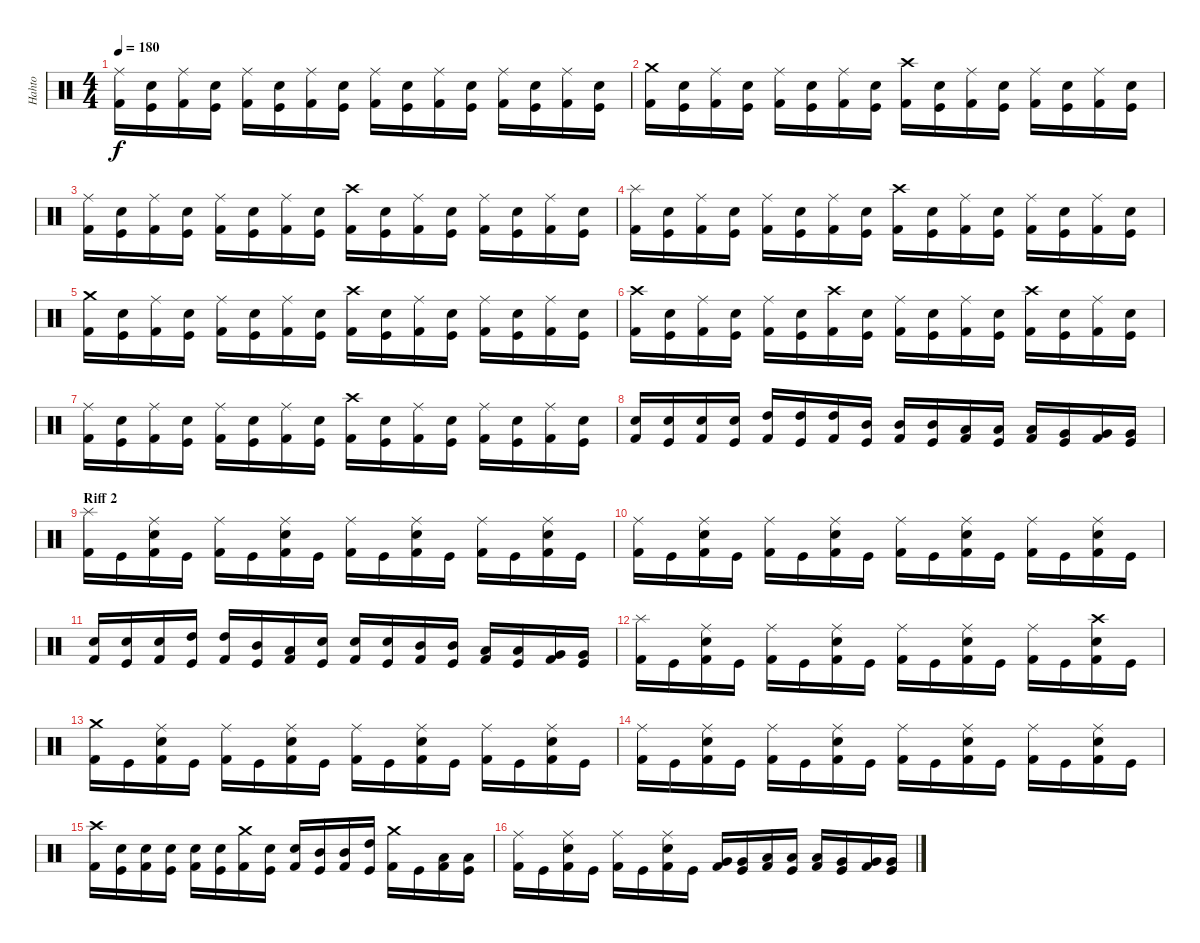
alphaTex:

\track ("Hahto" "Hahto") {instrument percussion}
\staff {score}
\articulation defaults
\ts (4 4)
\tempo 180
\clef neutral
\ks c
("Ride (middle)" "Kick (hit) 2").16{dy f} ("Snare (hit) 2" "Kick (hit)").16 ("Ride (middle)" "Kick (hit) 2").16 ("Snare (hit) 2" "Kick (hit)").16 ("Ride (middle)" "Kick (hit) 2").16 ("Snare (hit) 2" "Kick (hit)").16 ("Ride (middle)" "Kick (hit) 2").16 ("Snare (hit) 2" "Kick (hit)").16 ("Ride (middle)" "Kick (hit) 2").16 ("Snare (hit) 2" "Kick (hit)").16 ("Ride (middle)" "Kick (hit) 2").16 ("Snare (hit) 2" "Kick (hit)").16 ("Ride (middle)" "Kick (hit) 2").16 ("Snare (hit) 2" "Kick (hit)").16 ("Ride (middle)" "Kick (hit) 2").16 ("Snare (hit) 2" "Kick (hit)").16 |
("Crash medium (hit)" "Kick (hit) 2").16 ("Snare (hit) 2" "Kick (hit)").16 ("Ride (middle)" "Kick (hit) 2").16 ("Snare (hit) 2" "Kick (hit)").16 ("Ride (middle)" "Kick (hit) 2").16 ("Snare (hit) 2" "Kick (hit)").16 ("Ride (middle)" "Kick (hit) 2").16 ("Snare (hit) 2" "Kick (hit)").16 ("Crash high (hit)" "Kick (hit) 2").16 ("Snare (hit) 2" "Kick (hit)").16 ("Ride (middle)" "Kick (hit) 2").16 ("Snare (hit) 2" "Kick (hit)").16 ("Ride (middle)" "Kick (hit) 2").16 ("Snare (hit) 2" "Kick (hit)").16 ("Ride (middle)" "Kick (hit) 2").16 ("Snare (hit) 2" "Kick (hit)").16 |
("Ride (middle)" "Kick (hit) 2").16 ("Snare (hit) 2" "Kick (hit)").16 ("Ride (middle)" "Kick (hit) 2").16 ("Snare (hit) 2" "Kick (hit)").16 ("Ride (middle)" "Kick (hit) 2").16 ("Snare (hit) 2" "Kick (hit)").16 ("Ride (middle)" "Kick (hit) 2").16 ("Snare (hit) 2" "Kick (hit)").16 ("Crash high (hit)" "Kick (hit) 2").16 ("Snare (hit) 2" "Kick (hit)").16 ("Ride (middle)" "Kick (hit) 2").16 ("Snare (hit) 2" "Kick (hit)").16 ("Ride (middle)" "Kick (hit) 2").16 ("Snare (hit) 2" "Kick (hit)").16 ("Ride (middle)" "Kick (hit) 2").16 ("Snare (hit) 2" "Kick (hit)").16 |
("Splash (hit)" "Kick (hit) 2").16 ("Snare (hit) 2" "Kick (hit)").16 ("Ride (middle)" "Kick (hit) 2").16 ("Snare (hit) 2" "Kick (hit)").16 ("Ride (middle)" "Kick (hit) 2").16 ("Snare (hit) 2" "Kick (hit)").16 ("Ride (middle)" "Kick (hit) 2").16 ("Snare (hit) 2" "Kick (hit)").16 ("Crash high (hit)" "Kick (hit) 2").16 ("Snare (hit) 2" "Kick (hit)").16 ("Ride (middle)" "Kick (hit) 2").16 ("Snare (hit) 2" "Kick (hit)").16 ("Ride (middle)" "Kick (hit) 2").16 ("Snare (hit) 2" "Kick (hit)").16 ("Ride (middle)" "Kick (hit) 2").16 ("Snare (hit) 2" "Kick (hit)").16 |
("Crash medium (hit)" "Kick (hit) 2").16 ("Snare (hit) 2" "Kick (hit)").16 ("Ride (middle)" "Kick (hit) 2").16 ("Snare (hit) 2" "Kick (hit)").16 ("Ride (middle)" "Kick (hit) 2").16 ("Snare (hit) 2" "Kick (hit)").16 ("Ride (middle)" "Kick (hit) 2").16 ("Snare (hit) 2" "Kick (hit)").16 ("Crash high (hit)" "Kick (hit) 2").16 ("Snare (hit) 2" "Kick (hit)").16 ("Ride (middle)" "Kick (hit) 2").16 ("Snare (hit) 2" "Kick (hit)").16 ("Ride (middle)" "Kick (hit) 2").16 ("Snare (hit) 2" "Kick (hit)").16 ("Ride (middle)" "Kick (hit) 2").16 ("Snare (hit) 2" "Kick (hit)").16 |
("Crash high (hit)" "Kick (hit) 2").16 ("Snare (hit) 2" "Kick (hit)").16 ("Ride (middle)" "Kick (hit) 2").16 ("Snare (hit) 2" "Kick (hit)").16 ("Ride (middle)" "Kick (hit) 2").16 ("Snare (hit) 2" "Kick (hit)").16 ("Crash high (hit)" "Kick (hit) 2").16 ("Snare (hit) 2" "Kick (hit)").16 ("Ride (middle)" "Kick (hit) 2").16 ("Snare (hit) 2" "Kick (hit)").16 ("Ride (middle)" "Kick (hit) 2").16 ("Snare (hit) 2" "Kick (hit)").16 ("Crash high (hit)" "Kick (hit) 2").16 ("Snare (hit) 2" "Kick (hit)").16 ("Ride (middle)" "Kick (hit) 2").16 ("Snare (hit) 2" "Kick (hit)").16 |
("Ride (middle)" "Kick (hit) 2").16 ("Snare (hit) 2" "Kick (hit)").16 ("Ride (middle)" "Kick (hit) 2").16 ("Snare (hit) 2" "Kick (hit)").16 ("Ride (middle)" "Kick (hit) 2").16 ("Snare (hit) 2" "Kick (hit)").16 ("Ride (middle)" "Kick (hit) 2").16 ("Snare (hit) 2" "Kick (hit)").16 ("Crash high (hit)" "Kick (hit) 2").16 ("Snare (hit) 2" "Kick (hit)").16 ("Ride (middle)" "Kick (hit) 2").16 ("Snare (hit) 2" "Kick (hit)").16 ("Ride (middle)" "Kick (hit) 2").16 ("Snare (hit) 2" "Kick (hit)").16 ("Ride (middle)" "Kick (hit) 2").16 ("Snare (hit) 2" "Kick (hit)").16 |
("Snare (hit) 2" "Kick (hit) 2").16 ("Snare (hit) 2" "Kick (hit)").16 ("Snare (hit) 2" "Kick (hit) 2").16 ("Snare (hit) 2" "Kick (hit)").16 ("High Tom (hit)" "Kick (hit) 2").16 ("High Tom (hit)" "Kick (hit)").16 ("High Tom (hit)" "Kick (hit) 2").16 ("Mid Tom (hit)" "Kick (hit)").16 ("Mid Tom (hit)" "Kick (hit) 2").16 ("Mid Tom (hit)" "Kick (hit)").16 ("Low Tom (hit)" "Kick (hit) 2").16 ("Low Tom (hit)" "Kick (hit)").16 ("Low Tom (hit)" "Kick (hit) 2").16 ("Very Low Tom (hit)" "Kick (hit)").16 ("Very Low Tom (hit)" "Kick (hit) 2").16 ("Very Low Tom (hit)" "Kick (hit)").16 |
\section ("" "Riff 2")
("Splash (hit)" "Kick (hit) 2").16 "Kick (hit)".16 ("Ride (middle)" "Snare (hit) 2" "Kick (hit) 2").16 "Kick (hit)".16 ("Ride (middle)" "Kick (hit) 2").16 "Kick (hit)".16 ("Ride (middle)" "Snare (hit) 2" "Kick (hit) 2").16 "Kick (hit)".16 ("Ride (middle)" "Kick (hit) 2").16 "Kick (hit)".16 ("Ride (middle)" "Snare (hit) 2" "Kick (hit) 2").16 "Kick (hit)".16 ("Ride (middle)" "Kick (hit) 2").16 "Kick (hit)".16 ("Ride (middle)" "Snare (hit) 2" "Kick (hit) 2").16 "Kick (hit)".16 |
("Ride (middle)" "Kick (hit) 2").16 "Kick (hit)".16 ("Ride (middle)" "Snare (hit) 2" "Kick (hit) 2").16 "Kick (hit)".16 ("Ride (middle)" "Kick (hit) 2").16 "Kick (hit)".16 ("Ride (middle)" "Snare (hit) 2" "Kick (hit) 2").16 "Kick (hit)".16 ("Ride (middle)" "Kick (hit) 2").16 "Kick (hit)".16 ("Ride (middle)" "Snare (hit) 2" "Kick (hit) 2").16 "Kick (hit)".16 ("Ride (middle)" "Kick (hit) 2").16 "Kick (hit)".16 ("Ride (middle)" "Snare (hit) 2" "Kick (hit) 2").16 "Kick (hit)".16 |
("Snare (hit) 2" "Kick (hit) 2").16 ("Snare (hit) 2" "Kick (hit)").16 ("Snare (hit) 2" "Kick (hit) 2").16 ("High Tom (hit)" "Kick (hit)").16 ("High Tom (hit)" "Kick (hit) 2").16 ("Mid Tom (hit)" "Kick (hit)").16 ("Low Tom (hit)" "Kick (hit) 2").16 ("Snare (hit) 2" "Kick (hit)").16 ("Snare (hit) 2" "Kick (hit) 2").16 ("Snare (hit) 2" "Kick (hit)").16 ("Mid Tom (hit)" "Kick (hit) 2").16 ("Mid Tom (hit)" "Kick (hit)").16 ("Low Tom (hit)" "Kick (hit) 2").16 ("Low Tom (hit)" "Kick (hit)").16 ("Very Low Tom (hit)" "Kick (hit) 2").16 ("Very Low Tom (hit)" "Kick (hit)").16 |
("Splash (hit)" "Kick (hit) 2").16 "Kick (hit)".16 ("Ride (middle)" "Snare (hit) 2" "Kick (hit) 2").16 "Kick (hit)".16 ("Ride (middle)" "Kick (hit) 2").16 "Kick (hit)".16 ("Ride (middle)" "Snare (hit) 2" "Kick (hit) 2").16 "Kick (hit)".16 ("Ride (middle)" "Kick (hit) 2").16 "Kick (hit)".16 ("Ride (middle)" "Snare (hit) 2" "Kick (hit) 2").16 "Kick (hit)".16 ("Ride (middle)" "Kick (hit) 2").16 "Kick (hit)".16 ("Crash high (hit)" "Snare (hit) 2" "Kick (hit) 2").16 "Kick (hit)".16 |
("Crash medium (hit)" "Kick (hit) 2").16 "Kick (hit)".16 ("Ride (middle)" "Snare (hit) 2" "Kick (hit) 2").16 "Kick (hit)".16 ("Ride (middle)" "Kick (hit) 2").16 "Kick (hit)".16 ("Ride (middle)" "Snare (hit) 2" "Kick (hit) 2").16 "Kick (hit)".16 ("Ride (middle)" "Kick (hit) 2").16 "Kick (hit)".16 ("Ride (middle)" "Snare (hit) 2" "Kick (hit) 2").16 "Kick (hit)".16 ("Ride (middle)" "Kick (hit) 2").16 "Kick (hit)".16 ("Ride (middle)" "Snare (hit) 2" "Kick (hit) 2").16 "Kick (hit)".16 |
("Ride (middle)" "Kick (hit) 2").16 "Kick (hit)".16 ("Ride (middle)" "Snare (hit) 2" "Kick (hit) 2").16 "Kick (hit)".16 ("Ride (middle)" "Kick (hit) 2").16 "Kick (hit)".16 ("Ride (middle)" "Snare (hit) 2" "Kick (hit) 2").16 "Kick (hit)".16 ("Ride (middle)" "Kick (hit) 2").16 "Kick (hit)".16 ("Ride (middle)" "Snare (hit) 2" "Kick (hit) 2").16 "Kick (hit)".16 ("Ride (middle)" "Kick (hit) 2").16 "Kick (hit)".16 ("Ride (middle)" "Snare (hit) 2" "Kick (hit) 2").16 "Kick (hit)".16 |
("Crash high (hit)" "Kick (hit) 2").16 ("Snare (hit) 2" "Kick (hit)").16 ("Snare (hit) 2" "Kick (hit) 2").16 ("Snare (hit) 2" "Kick (hit)").16 ("Snare (hit) 2" "Kick (hit) 2").16 ("Snare (hit) 2" "Kick (hit)").16 ("Crash medium (hit)" "Kick (hit) 2").16 ("Snare (hit) 2" "Kick (hit)").16 ("Snare (hit) 2" "Kick (hit) 2").16 ("Mid Tom (hit)" "Kick (hit)").16 ("Mid Tom (hit)" "Kick (hit) 2").16 ("High Tom (hit)" "Kick (hit)").16 ("Crash medium (hit)" "Kick (hit) 2").16 "Kick (hit)".16 ("Low Tom (hit)" "Kick (hit) 2").16 ("Low Tom (hit)" "Kick (hit)").16 |
("Ride (middle)" "Kick (hit) 2").16 "Kick (hit)".16 ("Ride (middle)" "Snare (hit) 2" "Kick (hit) 2").16 "Kick (hit)".16 ("Ride (middle)" "Kick (hit) 2").16 "Kick (hit)".16 ("Ride (middle)" "Snare (hit) 2" "Kick (hit) 2").16 "Kick (hit)".16 ("Very Low Tom (hit)" "Kick (hit) 2").16 ("Very Low Tom (hit)" "Kick (hit)").16 ("Low Tom (hit)" "Kick (hit) 2").16 ("Low Tom (hit)" "Kick (hit)").16 ("Low Tom (hit)" "Kick (hit) 2").16 ("Very Low Tom (hit)" "Kick (hit)").16 ("Very Low Tom (hit)" "Kick (hit) 2").16 ("Very Low Tom (hit)" "Kick (hit)").16
